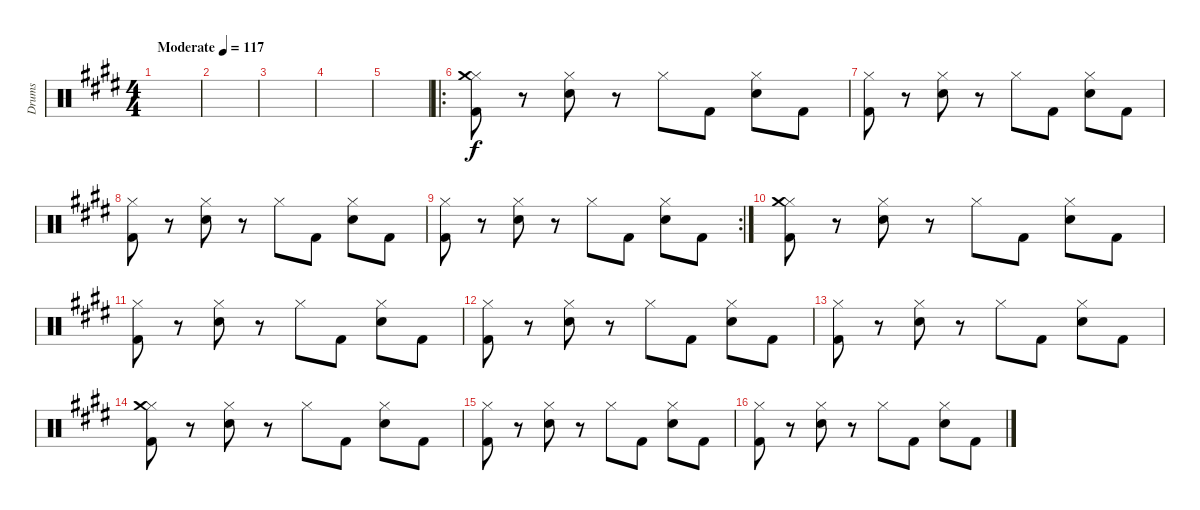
\track ("Drums" "Drums") {instrument percussion}
\staff {score}
\articulation defaults
\ts (4 4)
\tempo (117 "Moderate")
\clef neutral
\ks c#minor
|
|
|
|
|
\ro
("Hi-Hat (closed)" "Kick (hit) 2" "Crash medium (hit)").8 r.8 ("Hi-Hat (closed)" "Snare (hit) 2").8 r.8 "Hi-Hat (closed)".8 "Kick (hit) 2".8 ("Hi-Hat (closed)" "Snare (hit) 2").8 "Kick (hit) 2".8 |
("Hi-Hat (closed)" "Kick (hit) 2").8 r.8 ("Hi-Hat (closed)" "Snare (hit) 2").8 r.8 "Hi-Hat (closed)".8 "Kick (hit) 2".8 ("Hi-Hat (closed)" "Snare (hit) 2").8 "Kick (hit) 2".8 |
("Hi-Hat (closed)" "Kick (hit) 2").8 r.8 ("Hi-Hat (closed)" "Snare (hit) 2").8 r.8 "Hi-Hat (closed)".8 "Kick (hit) 2".8 ("Hi-Hat (closed)" "Snare (hit) 2").8 "Kick (hit) 2".8 |
\rc 2
("Hi-Hat (closed)" "Kick (hit) 2").8 r.8 ("Hi-Hat (closed)" "Snare (hit) 2").8 r.8 "Hi-Hat (closed)".8 "Kick (hit) 2".8 ("Hi-Hat (closed)" "Snare (hit) 2").8 "Kick (hit) 2".8 |
("Hi-Hat (closed)" "Kick (hit) 2" "Crash medium (hit)").8 r.8 ("Hi-Hat (closed)" "Snare (hit) 2").8 r.8 "Hi-Hat (closed)".8 "Kick (hit) 2".8 ("Hi-Hat (closed)" "Snare (hit) 2").8 "Kick (hit) 2".8 |
("Hi-Hat (closed)" "Kick (hit) 2").8 r.8 ("Hi-Hat (closed)" "Snare (hit) 2").8 r.8 "Hi-Hat (closed)".8 "Kick (hit) 2".8 ("Hi-Hat (closed)" "Snare (hit) 2").8 "Kick (hit) 2".8 |
("Hi-Hat (closed)" "Kick (hit) 2").8 r.8 ("Hi-Hat (closed)" "Snare (hit) 2").8 r.8 "Hi-Hat (closed)".8 "Kick (hit) 2".8 ("Hi-Hat (closed)" "Snare (hit) 2").8 "Kick (hit) 2".8 |
("Hi-Hat (closed)" "Kick (hit) 2").8 r.8 ("Hi-Hat (closed)" "Snare (hit) 2").8 r.8 "Hi-Hat (closed)".8 "Kick (hit) 2".8 ("Hi-Hat (closed)" "Snare (hit) 2").8 "Kick (hit) 2".8 |
("Hi-Hat (closed)" "Kick (hit) 2" "Crash medium (hit)").8 r.8 ("Hi-Hat (closed)" "Snare (hit) 2").8 r.8 "Hi-Hat (closed)".8 "Kick (hit) 2".8 ("Hi-Hat (closed)" "Snare (hit) 2").8 "Kick (hit) 2".8 |
("Hi-Hat (closed)" "Kick (hit) 2").8 r.8 ("Hi-Hat (closed)" "Snare (hit) 2").8 r.8 "Hi-Hat (closed)".8 "Kick (hit) 2".8 ("Hi-Hat (closed)" "Snare (hit) 2").8 "Kick (hit) 2".8 |
("Hi-Hat (closed)" "Kick (hit) 2").8 r.8 ("Hi-Hat (closed)" "Snare (hit) 2").8 r.8 "Hi-Hat (closed)".8 "Kick (hit) 2".8 ("Hi-Hat (closed)" "Snare (hit) 2").8 "Kick (hit) 2".8
